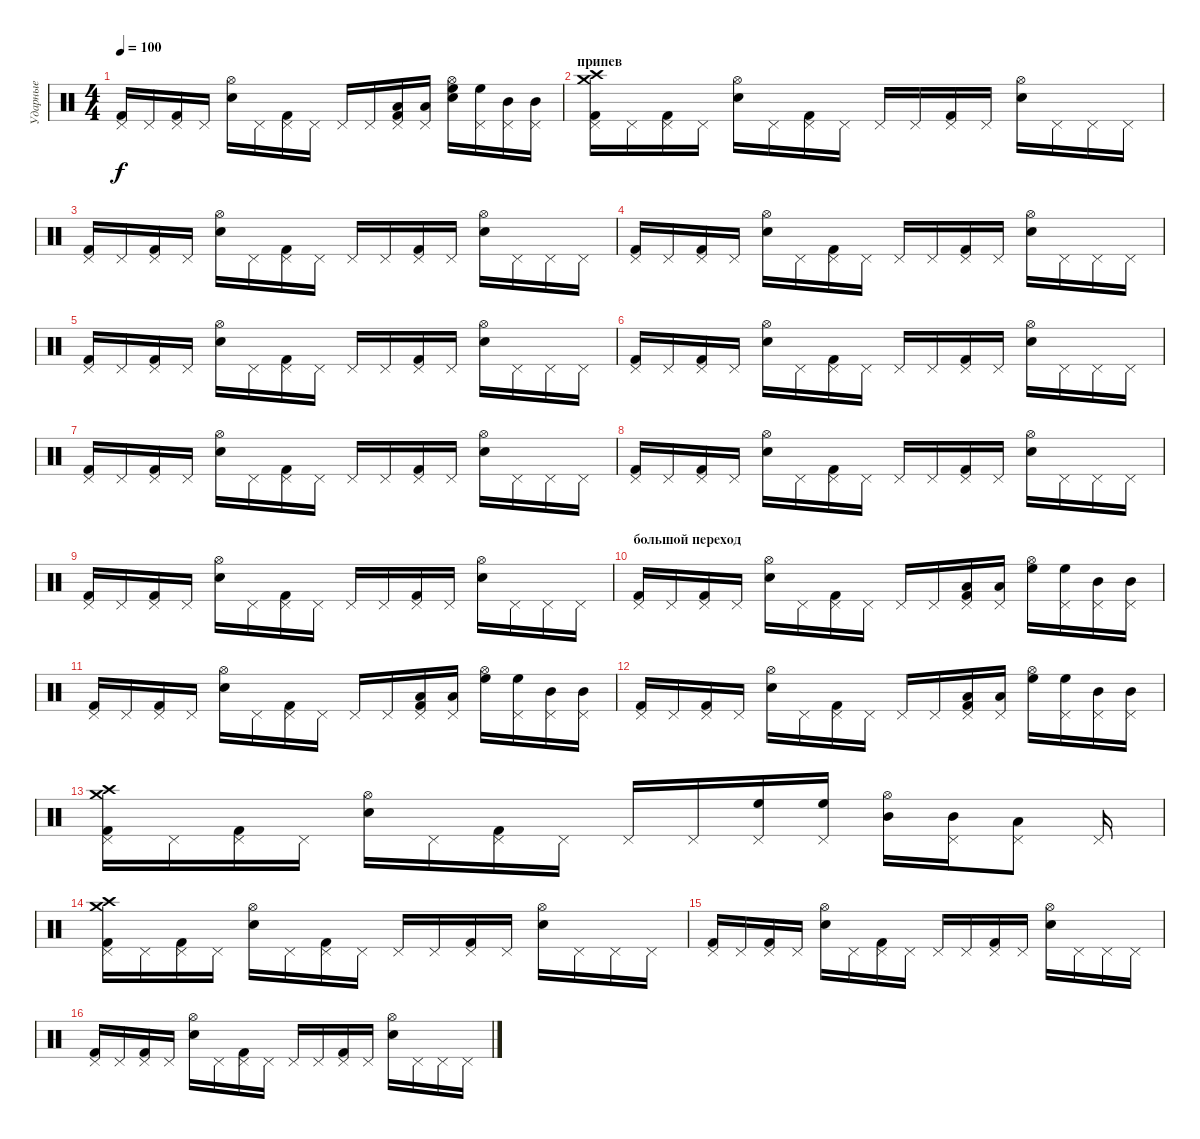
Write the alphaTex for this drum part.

\track ("Ударные" "Ударные") {instrument percussion}
\staff {score}
\articulation defaults
\ts (4 4)
\tempo 100
\clef neutral
\ks c
("Pedal Hi-Hat (hit)" "Kick (hit) 2").16{dy f} "Pedal Hi-Hat (hit)".16 ("Pedal Hi-Hat (hit)" "Kick (hit) 2").16 "Pedal Hi-Hat (hit)".16 ("Hi-Hat (open)" "Snare (hit) 2").16 "Pedal Hi-Hat (hit)".16 ("Pedal Hi-Hat (hit)" "Kick (hit) 2").16 "Pedal Hi-Hat (hit)".16 "Pedal Hi-Hat (hit)".16 "Pedal Hi-Hat (hit)".16 ("Pedal Hi-Hat (hit)" "Kick (hit) 2" "Low Tom (hit)").16 ("Pedal Hi-Hat (hit)" "Low Tom (hit)").16 ("Hi-Hat (open)" "Snare (hit) 2" "High Floor Tom (hit)").16 ("Pedal Hi-Hat (hit)" "High Floor Tom (hit)").16 ("Pedal Hi-Hat (hit)" "Mid Tom (hit)").16 ("Pedal Hi-Hat (hit)" "Mid Tom (hit)").16 |
\section ("" "припев")
("Pedal Hi-Hat (hit)" "Kick (hit) 2" "Crash high (hit)" "Crash medium (hit)").16 "Pedal Hi-Hat (hit)".16 ("Pedal Hi-Hat (hit)" "Kick (hit) 2").16 "Pedal Hi-Hat (hit)".16 ("Hi-Hat (open)" "Snare (hit) 2").16 "Pedal Hi-Hat (hit)".16 ("Pedal Hi-Hat (hit)" "Kick (hit) 2").16 "Pedal Hi-Hat (hit)".16 "Pedal Hi-Hat (hit)".16 "Pedal Hi-Hat (hit)".16 ("Pedal Hi-Hat (hit)" "Kick (hit) 2").16 "Pedal Hi-Hat (hit)".16 ("Hi-Hat (open)" "Snare (hit) 2").16 "Pedal Hi-Hat (hit)".16 "Pedal Hi-Hat (hit)".16 "Pedal Hi-Hat (hit)".16 |
("Pedal Hi-Hat (hit)" "Kick (hit) 2").16 "Pedal Hi-Hat (hit)".16 ("Pedal Hi-Hat (hit)" "Kick (hit) 2").16 "Pedal Hi-Hat (hit)".16 ("Hi-Hat (open)" "Snare (hit) 2").16 "Pedal Hi-Hat (hit)".16 ("Pedal Hi-Hat (hit)" "Kick (hit) 2").16 "Pedal Hi-Hat (hit)".16 "Pedal Hi-Hat (hit)".16 "Pedal Hi-Hat (hit)".16 ("Pedal Hi-Hat (hit)" "Kick (hit) 2").16 "Pedal Hi-Hat (hit)".16 ("Hi-Hat (open)" "Snare (hit) 2").16 "Pedal Hi-Hat (hit)".16 "Pedal Hi-Hat (hit)".16 "Pedal Hi-Hat (hit)".16 |
("Pedal Hi-Hat (hit)" "Kick (hit) 2").16 "Pedal Hi-Hat (hit)".16 ("Pedal Hi-Hat (hit)" "Kick (hit) 2").16 "Pedal Hi-Hat (hit)".16 ("Hi-Hat (open)" "Snare (hit) 2").16 "Pedal Hi-Hat (hit)".16 ("Pedal Hi-Hat (hit)" "Kick (hit) 2").16 "Pedal Hi-Hat (hit)".16 "Pedal Hi-Hat (hit)".16 "Pedal Hi-Hat (hit)".16 ("Pedal Hi-Hat (hit)" "Kick (hit) 2").16 "Pedal Hi-Hat (hit)".16 ("Hi-Hat (open)" "Snare (hit) 2").16 "Pedal Hi-Hat (hit)".16 "Pedal Hi-Hat (hit)".16 "Pedal Hi-Hat (hit)".16 |
("Pedal Hi-Hat (hit)" "Kick (hit) 2").16 "Pedal Hi-Hat (hit)".16 ("Pedal Hi-Hat (hit)" "Kick (hit) 2").16 "Pedal Hi-Hat (hit)".16 ("Hi-Hat (open)" "Snare (hit) 2").16 "Pedal Hi-Hat (hit)".16 ("Pedal Hi-Hat (hit)" "Kick (hit) 2").16 "Pedal Hi-Hat (hit)".16 "Pedal Hi-Hat (hit)".16 "Pedal Hi-Hat (hit)".16 ("Pedal Hi-Hat (hit)" "Kick (hit) 2").16 "Pedal Hi-Hat (hit)".16 ("Hi-Hat (open)" "Snare (hit) 2").16 "Pedal Hi-Hat (hit)".16 "Pedal Hi-Hat (hit)".16 "Pedal Hi-Hat (hit)".16 |
("Pedal Hi-Hat (hit)" "Kick (hit) 2").16 "Pedal Hi-Hat (hit)".16 ("Pedal Hi-Hat (hit)" "Kick (hit) 2").16 "Pedal Hi-Hat (hit)".16 ("Hi-Hat (open)" "Snare (hit) 2").16 "Pedal Hi-Hat (hit)".16 ("Pedal Hi-Hat (hit)" "Kick (hit) 2").16 "Pedal Hi-Hat (hit)".16 "Pedal Hi-Hat (hit)".16 "Pedal Hi-Hat (hit)".16 ("Pedal Hi-Hat (hit)" "Kick (hit) 2").16 "Pedal Hi-Hat (hit)".16 ("Hi-Hat (open)" "Snare (hit) 2").16 "Pedal Hi-Hat (hit)".16 "Pedal Hi-Hat (hit)".16 "Pedal Hi-Hat (hit)".16 |
("Pedal Hi-Hat (hit)" "Kick (hit) 2").16 "Pedal Hi-Hat (hit)".16 ("Pedal Hi-Hat (hit)" "Kick (hit) 2").16 "Pedal Hi-Hat (hit)".16 ("Hi-Hat (open)" "Snare (hit) 2").16 "Pedal Hi-Hat (hit)".16 ("Pedal Hi-Hat (hit)" "Kick (hit) 2").16 "Pedal Hi-Hat (hit)".16 "Pedal Hi-Hat (hit)".16 "Pedal Hi-Hat (hit)".16 ("Pedal Hi-Hat (hit)" "Kick (hit) 2").16 "Pedal Hi-Hat (hit)".16 ("Hi-Hat (open)" "Snare (hit) 2").16 "Pedal Hi-Hat (hit)".16 "Pedal Hi-Hat (hit)".16 "Pedal Hi-Hat (hit)".16 |
("Pedal Hi-Hat (hit)" "Kick (hit) 2").16 "Pedal Hi-Hat (hit)".16 ("Pedal Hi-Hat (hit)" "Kick (hit) 2").16 "Pedal Hi-Hat (hit)".16 ("Hi-Hat (open)" "Snare (hit) 2").16 "Pedal Hi-Hat (hit)".16 ("Pedal Hi-Hat (hit)" "Kick (hit) 2").16 "Pedal Hi-Hat (hit)".16 "Pedal Hi-Hat (hit)".16 "Pedal Hi-Hat (hit)".16 ("Pedal Hi-Hat (hit)" "Kick (hit) 2").16 "Pedal Hi-Hat (hit)".16 ("Hi-Hat (open)" "Snare (hit) 2").16 "Pedal Hi-Hat (hit)".16 "Pedal Hi-Hat (hit)".16 "Pedal Hi-Hat (hit)".16 |
("Pedal Hi-Hat (hit)" "Kick (hit) 2").16 "Pedal Hi-Hat (hit)".16 ("Pedal Hi-Hat (hit)" "Kick (hit) 2").16 "Pedal Hi-Hat (hit)".16 ("Hi-Hat (open)" "Snare (hit) 2").16 "Pedal Hi-Hat (hit)".16 ("Pedal Hi-Hat (hit)" "Kick (hit) 2").16 "Pedal Hi-Hat (hit)".16 "Pedal Hi-Hat (hit)".16 "Pedal Hi-Hat (hit)".16 ("Pedal Hi-Hat (hit)" "Kick (hit) 2").16 "Pedal Hi-Hat (hit)".16 ("Hi-Hat (open)" "Snare (hit) 2").16 "Pedal Hi-Hat (hit)".16 "Pedal Hi-Hat (hit)".16 "Pedal Hi-Hat (hit)".16 |
\section ("" "большой переход")
("Pedal Hi-Hat (hit)" "Kick (hit) 2").16 "Pedal Hi-Hat (hit)".16 ("Pedal Hi-Hat (hit)" "Kick (hit) 2").16 "Pedal Hi-Hat (hit)".16 ("Hi-Hat (open)" "Snare (hit) 2").16 "Pedal Hi-Hat (hit)".16 ("Pedal Hi-Hat (hit)" "Kick (hit) 2").16 "Pedal Hi-Hat (hit)".16 "Pedal Hi-Hat (hit)".16 "Pedal Hi-Hat (hit)".16 ("Pedal Hi-Hat (hit)" "Kick (hit) 2" "Low Tom (hit)").16 ("Pedal Hi-Hat (hit)" "Low Tom (hit)").16 ("Hi-Hat (open)" "High Floor Tom (hit)").16 ("Pedal Hi-Hat (hit)" "High Floor Tom (hit)").16 ("Pedal Hi-Hat (hit)" "Mid Tom (hit)").16 ("Pedal Hi-Hat (hit)" "Mid Tom (hit)").16 |
("Pedal Hi-Hat (hit)" "Kick (hit) 2").16 "Pedal Hi-Hat (hit)".16 ("Pedal Hi-Hat (hit)" "Kick (hit) 2").16 "Pedal Hi-Hat (hit)".16 ("Hi-Hat (open)" "Snare (hit) 2").16 "Pedal Hi-Hat (hit)".16 ("Pedal Hi-Hat (hit)" "Kick (hit) 2").16 "Pedal Hi-Hat (hit)".16 "Pedal Hi-Hat (hit)".16 "Pedal Hi-Hat (hit)".16 ("Pedal Hi-Hat (hit)" "Kick (hit) 2" "Low Tom (hit)").16 ("Pedal Hi-Hat (hit)" "Low Tom (hit)").16 ("Hi-Hat (open)" "High Floor Tom (hit)").16 ("Pedal Hi-Hat (hit)" "High Floor Tom (hit)").16 ("Pedal Hi-Hat (hit)" "Mid Tom (hit)").16 ("Pedal Hi-Hat (hit)" "Mid Tom (hit)").16 |
("Pedal Hi-Hat (hit)" "Kick (hit) 2").16 "Pedal Hi-Hat (hit)".16 ("Pedal Hi-Hat (hit)" "Kick (hit) 2").16 "Pedal Hi-Hat (hit)".16 ("Hi-Hat (open)" "Snare (hit) 2").16 "Pedal Hi-Hat (hit)".16 ("Pedal Hi-Hat (hit)" "Kick (hit) 2").16 "Pedal Hi-Hat (hit)".16 "Pedal Hi-Hat (hit)".16 "Pedal Hi-Hat (hit)".16 ("Pedal Hi-Hat (hit)" "Kick (hit) 2" "Low Tom (hit)").16 ("Pedal Hi-Hat (hit)" "Low Tom (hit)").16 ("Hi-Hat (open)" "High Floor Tom (hit)").16 ("Pedal Hi-Hat (hit)" "High Floor Tom (hit)").16 ("Pedal Hi-Hat (hit)" "Mid Tom (hit)").16 ("Pedal Hi-Hat (hit)" "Mid Tom (hit)").16 |
("Pedal Hi-Hat (hit)" "Kick (hit) 2" "Crash high (hit)" "Crash medium (hit)").16 "Pedal Hi-Hat (hit)".16 ("Pedal Hi-Hat (hit)" "Kick (hit) 2").16 "Pedal Hi-Hat (hit)".16 ("Hi-Hat (open)" "Snare (hit) 2").16 "Pedal Hi-Hat (hit)".16 ("Pedal Hi-Hat (hit)" "Kick (hit) 2").16 "Pedal Hi-Hat (hit)".16 "Pedal Hi-Hat (hit)".16 "Pedal Hi-Hat (hit)".16 ("Pedal Hi-Hat (hit)" "High Floor Tom (hit)").16 ("Pedal Hi-Hat (hit)" "High Floor Tom (hit)").16 ("Hi-Hat (open)" "Mid Tom (hit)").16 ("Pedal Hi-Hat (hit)" "Mid Tom (hit)").16 ("Pedal Hi-Hat (hit)" "Low Tom (hit)").8 "Pedal Hi-Hat (hit)".16 |
("Pedal Hi-Hat (hit)" "Kick (hit) 2" "Crash high (hit)" "Crash medium (hit)").16 "Pedal Hi-Hat (hit)".16 ("Pedal Hi-Hat (hit)" "Kick (hit) 2").16 "Pedal Hi-Hat (hit)".16 ("Hi-Hat (open)" "Snare (hit) 2").16 "Pedal Hi-Hat (hit)".16 ("Pedal Hi-Hat (hit)" "Kick (hit) 2").16 "Pedal Hi-Hat (hit)".16 "Pedal Hi-Hat (hit)".16 "Pedal Hi-Hat (hit)".16 ("Pedal Hi-Hat (hit)" "Kick (hit) 2").16 "Pedal Hi-Hat (hit)".16 ("Hi-Hat (open)" "Snare (hit) 2").16 "Pedal Hi-Hat (hit)".16 "Pedal Hi-Hat (hit)".16 "Pedal Hi-Hat (hit)".16 |
("Pedal Hi-Hat (hit)" "Kick (hit) 2").16 "Pedal Hi-Hat (hit)".16 ("Pedal Hi-Hat (hit)" "Kick (hit) 2").16 "Pedal Hi-Hat (hit)".16 ("Hi-Hat (open)" "Snare (hit) 2").16 "Pedal Hi-Hat (hit)".16 ("Pedal Hi-Hat (hit)" "Kick (hit) 2").16 "Pedal Hi-Hat (hit)".16 "Pedal Hi-Hat (hit)".16 "Pedal Hi-Hat (hit)".16 ("Pedal Hi-Hat (hit)" "Kick (hit) 2").16 "Pedal Hi-Hat (hit)".16 ("Hi-Hat (open)" "Snare (hit) 2").16 "Pedal Hi-Hat (hit)".16 "Pedal Hi-Hat (hit)".16 "Pedal Hi-Hat (hit)".16 |
("Pedal Hi-Hat (hit)" "Kick (hit) 2").16 "Pedal Hi-Hat (hit)".16 ("Pedal Hi-Hat (hit)" "Kick (hit) 2").16 "Pedal Hi-Hat (hit)".16 ("Hi-Hat (open)" "Snare (hit) 2").16 "Pedal Hi-Hat (hit)".16 ("Pedal Hi-Hat (hit)" "Kick (hit) 2").16 "Pedal Hi-Hat (hit)".16 "Pedal Hi-Hat (hit)".16 "Pedal Hi-Hat (hit)".16 ("Pedal Hi-Hat (hit)" "Kick (hit) 2").16 "Pedal Hi-Hat (hit)".16 ("Hi-Hat (open)" "Snare (hit) 2").16 "Pedal Hi-Hat (hit)".16 "Pedal Hi-Hat (hit)".16 "Pedal Hi-Hat (hit)".16
